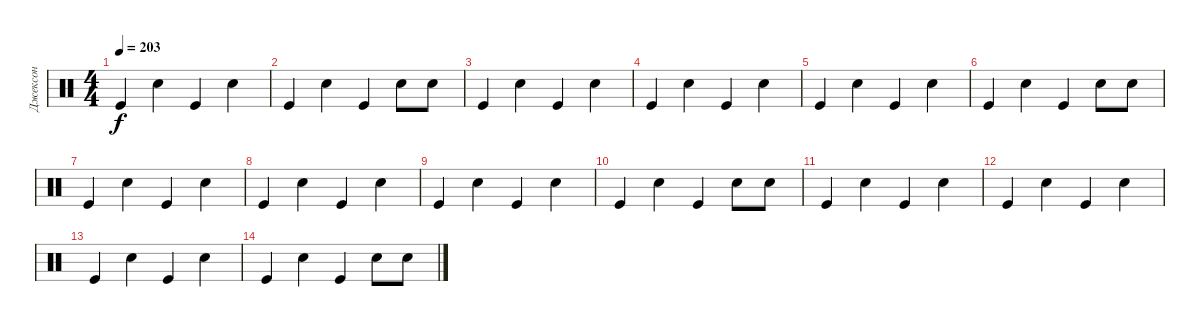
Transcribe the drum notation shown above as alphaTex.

\track ("Джексон" "Джексон") {instrument percussion}
\staff {score}
\articulation defaults
\ts (4 4)
\tempo 203
\clef neutral
\ks c "Kick (hit)".4{dy f} "Snare (hit) 2".4 "Kick (hit)".4 "Snare (hit) 2".4
|
"Kick (hit)".4 "Snare (hit) 2".4 "Kick (hit)".4 "Snare (hit) 2".8 "Snare (hit) 2".8 |
"Kick (hit)".4 "Snare (hit) 2".4 "Kick (hit)".4 "Snare (hit) 2".4 |
"Kick (hit)".4 "Snare (hit) 2".4 "Kick (hit)".4 "Snare (hit) 2".4 |
"Kick (hit)".4 "Snare (hit) 2".4 "Kick (hit)".4 "Snare (hit) 2".4 |
"Kick (hit)".4 "Snare (hit) 2".4 "Kick (hit)".4 "Snare (hit) 2".8 "Snare (hit) 2".8 |
"Kick (hit)".4 "Snare (hit) 2".4 "Kick (hit)".4 "Snare (hit) 2".4 |
"Kick (hit)".4 "Snare (hit) 2".4 "Kick (hit)".4 "Snare (hit) 2".4 |
"Kick (hit)".4 "Snare (hit) 2".4 "Kick (hit)".4 "Snare (hit) 2".4 |
"Kick (hit)".4 "Snare (hit) 2".4 "Kick (hit)".4 "Snare (hit) 2".8 "Snare (hit) 2".8 |
"Kick (hit)".4 "Snare (hit) 2".4 "Kick (hit)".4 "Snare (hit) 2".4 |
"Kick (hit)".4 "Snare (hit) 2".4 "Kick (hit)".4 "Snare (hit) 2".4 |
"Kick (hit)".4 "Snare (hit) 2".4 "Kick (hit)".4 "Snare (hit) 2".4 |
"Kick (hit)".4 "Snare (hit) 2".4 "Kick (hit)".4 "Snare (hit) 2".8 "Snare (hit) 2".8
